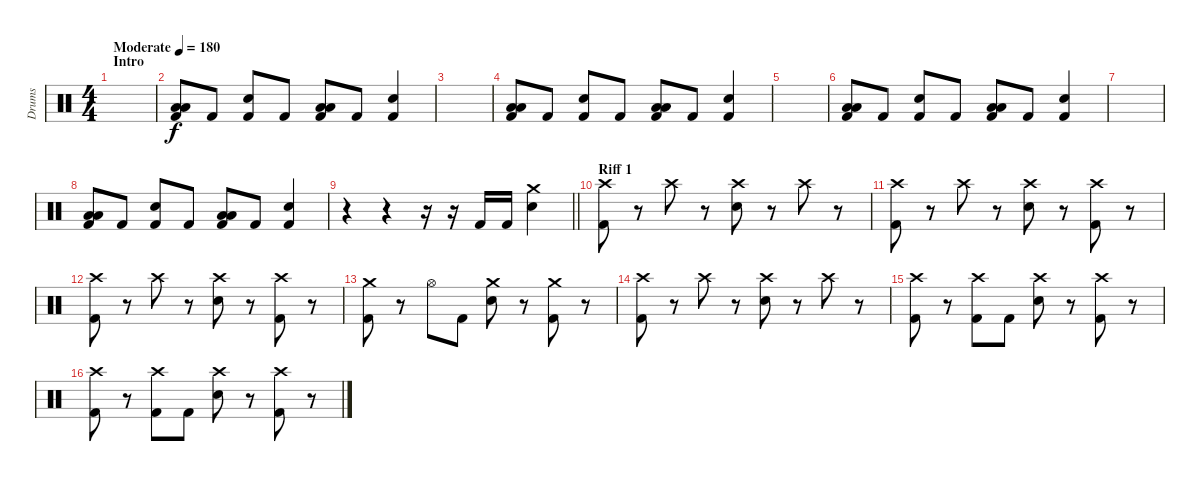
\track ("Drums" "Drums") {instrument percussion}
\staff {score}
\articulation defaults
\ts (4 4)
\section ("" "Intro")
\tempo (180 "Moderate")
\clef neutral
\ks c
|
("Low Tom (hit)" "Low Floor Tom (hit)" "Kick (hit) 2").8 "Kick (hit) 2".8 ("Snare (hit) 2" "Kick (hit) 2").8 "Kick (hit) 2".8 ("Low Tom (hit)" "Low Floor Tom (hit)" "Kick (hit) 2").8 "Kick (hit) 2".8 ("Snare (hit) 2" "Kick (hit) 2").4 |
|
("Low Tom (hit)" "Low Floor Tom (hit)" "Kick (hit) 2").8 "Kick (hit) 2".8 ("Snare (hit) 2" "Kick (hit) 2").8 "Kick (hit) 2".8 ("Low Tom (hit)" "Low Floor Tom (hit)" "Kick (hit) 2").8 "Kick (hit) 2".8 ("Snare (hit) 2" "Kick (hit) 2").4 |
|
("Low Tom (hit)" "Low Floor Tom (hit)" "Kick (hit) 2").8 "Kick (hit) 2".8 ("Snare (hit) 2" "Kick (hit) 2").8 "Kick (hit) 2".8 ("Low Tom (hit)" "Low Floor Tom (hit)" "Kick (hit) 2").8 "Kick (hit) 2".8 ("Snare (hit) 2" "Kick (hit) 2").4 |
|
("Low Tom (hit)" "Low Floor Tom (hit)" "Kick (hit) 2").8 "Kick (hit) 2".8 ("Snare (hit) 2" "Kick (hit) 2").8 "Kick (hit) 2".8 ("Low Tom (hit)" "Low Floor Tom (hit)" "Kick (hit) 2").8 "Kick (hit) 2".8 ("Snare (hit) 2" "Kick (hit) 2").4 |
\barLineRight lightlight
r.4 r.4 r.16 r.16 "Kick (hit) 2".16 "Kick (hit) 2".16 ("Crash medium (hit)" "Snare (hit) 2").4 |
\section ("" "Riff 1")
("Crash high (hit)" "Kick (hit) 2").8 r.8 "Crash high (hit)".8 r.8 ("Crash high (hit)" "Snare (hit) 2").8 r.8 "Crash high (hit)".8 r.8 |
("Crash high (hit)" "Kick (hit) 2").8 r.8 "Crash high (hit)".8 r.8 ("Crash high (hit)" "Snare (hit) 2").8 r.8 ("Crash high (hit)" "Kick (hit) 2").8 r.8 |
("Crash high (hit)" "Kick (hit) 2").8 r.8 "Crash high (hit)".8 r.8 ("Crash high (hit)" "Snare (hit) 2").8 r.8 ("Crash high (hit)" "Kick (hit) 2").8 r.8 |
("Crash medium (hit)" "Kick (hit) 2").8 r.8 "Hi-Hat (open)".8 "Kick (hit) 2".8 ("Crash medium (hit)" "Snare (hit) 2").8 r.8 ("Crash medium (hit)" "Kick (hit) 2").8 r.8 |
("Crash high (hit)" "Kick (hit) 2").8 r.8 "Crash high (hit)".8 r.8 ("Crash high (hit)" "Snare (hit) 2").8 r.8 "Crash high (hit)".8 r.8 |
("Crash high (hit)" "Kick (hit) 2").8 r.8 ("Crash high (hit)" "Kick (hit) 2").8 "Kick (hit) 2".8 ("Crash high (hit)" "Snare (hit) 2").8 r.8 ("Crash high (hit)" "Kick (hit) 2").8 r.8 |
("Crash high (hit)" "Kick (hit) 2").8 r.8 ("Crash high (hit)" "Kick (hit) 2").8 "Kick (hit) 2".8 ("Crash high (hit)" "Snare (hit) 2").8 r.8 ("Crash high (hit)" "Kick (hit) 2").8 r.8
